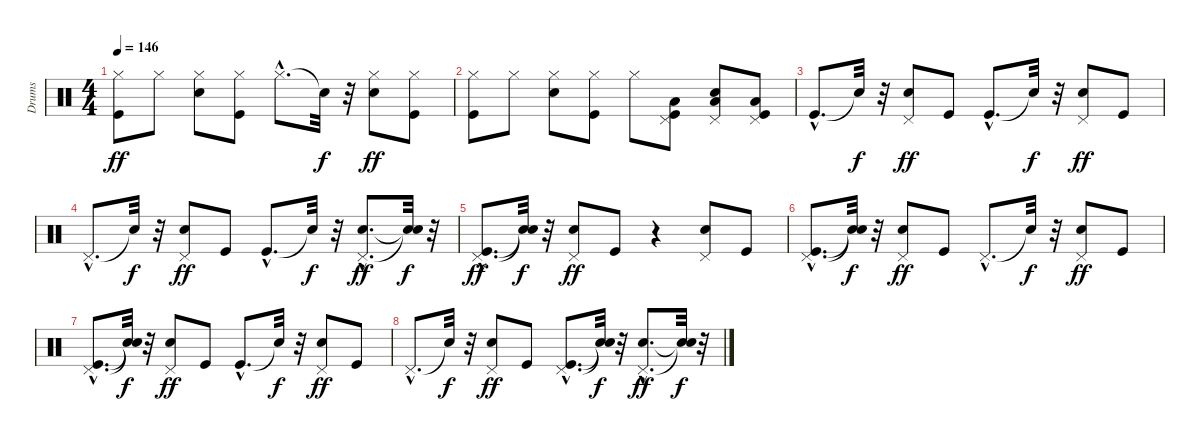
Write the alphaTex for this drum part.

\track ("Drums" "Drums") {instrument percussion}
\staff {score}
\articulation defaults
\ts (4 4)
\tempo 146
\clef neutral
\ks c
("Kick (hit)" "Hi-Hat (closed)").8{dy ff} "Hi-Hat (closed)".8 ("Snare (hit) 2" "Hi-Hat (closed)").8 ("Kick (hit)" "Hi-Hat (closed)").8 "Hi-Hat (closed)"{hac}.8{d} "Snare (hit)"{t}.32{dy f} r.32 ("Snare (hit) 2" "Hi-Hat (closed)").8{dy ff} ("Kick (hit)" "Hi-Hat (closed)").8 |
("Kick (hit)" "Hi-Hat (closed)").8 "Hi-Hat (closed)".8 ("Snare (hit) 2" "Hi-Hat (closed)").8 ("Kick (hit)" "Hi-Hat (closed)").8 "Hi-Hat (closed)".8 ("Kick (hit)" "Low Floor Tom (hit)" "Pedal Hi-Hat (hit)").8 ("Snare (hit) 2" "Low Floor Tom (hit)" "Pedal Hi-Hat (hit)").8 ("Kick (hit)" "Low Floor Tom (hit)" "Pedal Hi-Hat (hit)").8 |
"Kick (hit)"{hac}.8{d} "Snare (hit)"{t}.32{dy f} r.32 ("Snare (hit) 2" "Pedal Hi-Hat (hit)").8{dy ff} "Kick (hit)".8 "Kick (hit)"{hac}.8{d} "Snare (hit)"{t}.32{dy f} r.32 ("Snare (hit) 2" "Pedal Hi-Hat (hit)").8{dy ff} "Kick (hit)".8 |
"Pedal Hi-Hat (hit)"{hac}.8{d} "Snare (hit)"{t}.32{dy f} r.32 ("Snare (hit) 2" "Pedal Hi-Hat (hit)").8{dy ff} "Kick (hit)".8 "Kick (hit)"{hac}.8{d} "Snare (hit)"{t}.32{dy f} r.32 ("Snare (hit) 2"{hac} "Pedal Hi-Hat (hit)"{hac}).8{d dy ff} ("Snare (hit)"{t} "Snare (hit)"{t}).32{dy f} r.32 |
("Kick (hit)"{hac} "Pedal Hi-Hat (hit)"{hac}).8{d dy ff} ("Snare (hit)"{t} "Snare (hit)"{t}).32{dy f} r.32 ("Snare (hit) 2" "Pedal Hi-Hat (hit)").8{dy ff} "Kick (hit)".8 r.4 ("Snare (hit) 2" "Pedal Hi-Hat (hit)").8 "Kick (hit)".8 |
("Kick (hit)"{hac} "Pedal Hi-Hat (hit)"{hac}).8{d} ("Snare (hit)"{t} "Snare (hit)"{t}).32{dy f} r.32 ("Snare (hit) 2" "Pedal Hi-Hat (hit)").8{dy ff} "Kick (hit)".8 "Pedal Hi-Hat (hit)"{hac}.8{d} "Snare (hit)"{t}.32{dy f} r.32 ("Snare (hit) 2" "Pedal Hi-Hat (hit)").8{dy ff} "Kick (hit)".8 |
("Kick (hit)"{hac} "Pedal Hi-Hat (hit)"{hac}).8{d} ("Snare (hit)"{t} "Snare (hit)"{t}).32{dy f} r.32 ("Snare (hit) 2" "Pedal Hi-Hat (hit)").8{dy ff} "Kick (hit)".8 "Kick (hit)"{hac}.8{d} "Snare (hit)"{t}.32{dy f} r.32 ("Snare (hit) 2" "Pedal Hi-Hat (hit)").8{dy ff} "Kick (hit)".8 |
"Pedal Hi-Hat (hit)"{hac}.8{d} "Snare (hit)"{t}.32{dy f} r.32 ("Snare (hit) 2" "Pedal Hi-Hat (hit)").8{dy ff} "Kick (hit)".8 ("Kick (hit)"{hac} "Pedal Hi-Hat (hit)"{hac}).8{d} ("Snare (hit)"{t} "Snare (hit)"{t}).32{dy f} r.32 ("Snare (hit) 2"{hac} "Pedal Hi-Hat (hit)"{hac}).8{d dy ff} ("Snare (hit)"{t} "Snare (hit)"{t}).32{dy f} r.32
